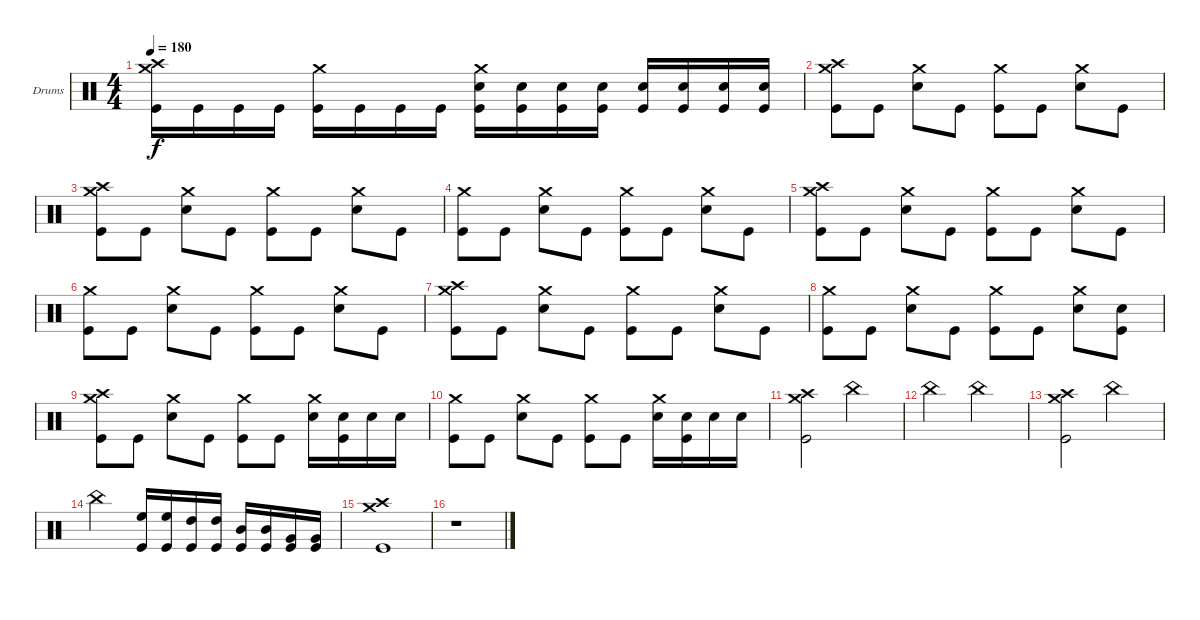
\bracketExtendMode groupsimilarinstruments
\firstSystemTrackNameOrientation horizontal
\otherSystemsTrackNameOrientation horizontal
\track ("Drumkit" "Drums") {instrument percussion}
\staff {score}
\articulation defaults
\ts (4 4)
\tempo 180
\clef neutral
\ks c
("Crash high (hit)" "Crash medium (hit)" "Kick (hit)").16{dy f} "Kick (hit)".16 "Kick (hit)".16 "Kick (hit)".16 ("Crash medium (hit)" "Kick (hit)").16 "Kick (hit)".16 "Kick (hit)".16 "Kick (hit)".16 ("Crash medium (hit)" "Snare (hit) 2" "Kick (hit)").16 ("Snare (hit) 2" "Kick (hit)").16 ("Snare (hit) 2" "Kick (hit)").16 ("Snare (hit) 2" "Kick (hit)").16 ("Snare (hit) 2" "Kick (hit)").16 ("Snare (hit) 2" "Kick (hit)").16 ("Snare (hit) 2" "Kick (hit)").16 ("Snare (hit) 2" "Kick (hit)").16 |
("Crash high (hit)" "Crash medium (hit)" "Kick (hit)").8 "Kick (hit)".8 ("Crash medium (hit)" "Snare (hit) 2").8 "Kick (hit)".8 ("Crash medium (hit)" "Kick (hit)").8 "Kick (hit)".8 ("Crash medium (hit)" "Snare (hit) 2").8 "Kick (hit)".8 |
("Crash high (hit)" "Crash medium (hit)" "Kick (hit)").8 "Kick (hit)".8 ("Crash medium (hit)" "Snare (hit) 2").8 "Kick (hit)".8 ("Crash medium (hit)" "Kick (hit)").8 "Kick (hit)".8 ("Crash medium (hit)" "Snare (hit) 2").8 "Kick (hit)".8 |
("Crash medium (hit)" "Kick (hit)").8 "Kick (hit)".8 ("Crash medium (hit)" "Snare (hit) 2").8 "Kick (hit)".8 ("Crash medium (hit)" "Kick (hit)").8 "Kick (hit)".8 ("Crash medium (hit)" "Snare (hit) 2").8 "Kick (hit)".8 |
("Crash high (hit)" "Crash medium (hit)" "Kick (hit)").8 "Kick (hit)".8 ("Crash medium (hit)" "Snare (hit) 2").8 "Kick (hit)".8 ("Crash medium (hit)" "Kick (hit)").8 "Kick (hit)".8 ("Crash medium (hit)" "Snare (hit) 2").8 "Kick (hit)".8 |
("Crash medium (hit)" "Kick (hit)").8 "Kick (hit)".8 ("Crash medium (hit)" "Snare (hit) 2").8 "Kick (hit)".8 ("Crash medium (hit)" "Kick (hit)").8 "Kick (hit)".8 ("Crash medium (hit)" "Snare (hit) 2").8 "Kick (hit)".8 |
("Crash high (hit)" "Crash medium (hit)" "Kick (hit)").8 "Kick (hit)".8 ("Crash medium (hit)" "Snare (hit) 2").8 "Kick (hit)".8 ("Crash medium (hit)" "Kick (hit)").8 "Kick (hit)".8 ("Crash medium (hit)" "Snare (hit) 2").8 "Kick (hit)".8 |
("Crash medium (hit)" "Kick (hit)").8 "Kick (hit)".8 ("Crash medium (hit)" "Snare (hit) 2").8 "Kick (hit)".8 ("Crash medium (hit)" "Kick (hit)").8 "Kick (hit)".8 ("Crash medium (hit)" "Snare (hit) 2").8 ("Snare (hit) 2" "Kick (hit)").8 |
("Crash high (hit)" "Crash medium (hit)" "Kick (hit)").8 "Kick (hit)".8 ("Crash medium (hit)" "Snare (hit) 2").8 "Kick (hit)".8 ("Crash medium (hit)" "Kick (hit)").8 "Kick (hit)".8 ("Crash medium (hit)" "Snare (hit) 2").16 ("Snare (hit) 2" "Kick (hit)").16 "Snare (hit) 2".16 "Snare (hit) 2".16 |
("Crash medium (hit)" "Kick (hit)").8 "Kick (hit)".8 ("Crash medium (hit)" "Snare (hit) 2").8 "Kick (hit)".8 ("Crash medium (hit)" "Kick (hit)").8 "Kick (hit)".8 ("Crash medium (hit)" "Snare (hit) 2").16 ("Snare (hit) 2" "Kick (hit)").16 "Snare (hit) 2".16 "Snare (hit) 2".16 |
("Crash high (hit)" "Crash medium (hit)" "Kick (hit)").2 "China (hit)".2 |
"China (hit)".2 "China (hit)".2 |
("Crash high (hit)" "Crash medium (hit)" "Kick (hit)").2 "China (hit)".2 |
"China (hit)".2 ("High Floor Tom (hit)" "Kick (hit)").16 ("High Floor Tom (hit)" "Kick (hit)").16 ("High Tom (hit)" "Kick (hit)").16 ("High Tom (hit)" "Kick (hit)").16 ("Mid Tom (hit)" "Kick (hit)").16 ("Mid Tom (hit)" "Kick (hit)").16 ("Very Low Tom (hit)" "Kick (hit)").16 ("Very Low Tom (hit)" "Kick (hit)").16 |
("Crash high (hit)" "Crash medium (hit)" "Kick (hit)").1 |
r.1
